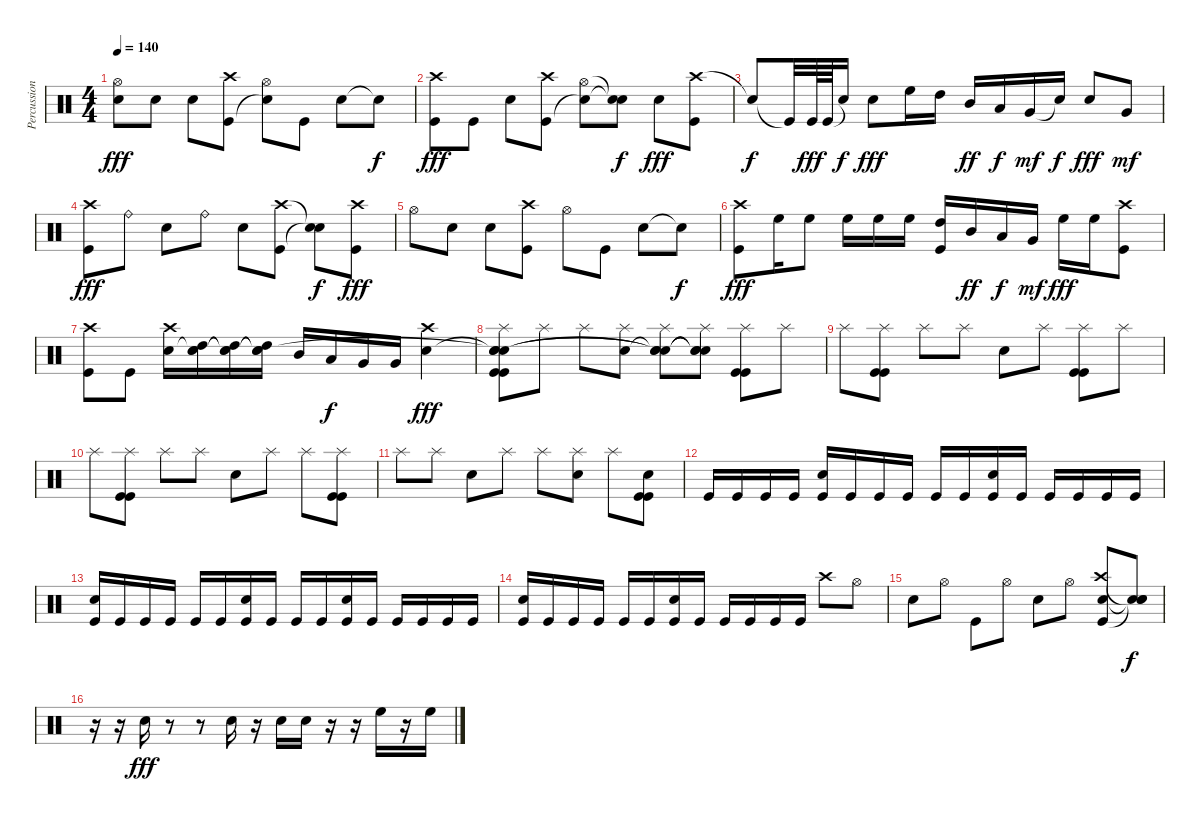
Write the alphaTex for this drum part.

\track ("Percussions" "Percussion") {instrument percussion}
\staff {score}
\articulation defaults
\ts (4 4)
\tempo 140
\clef neutral
\ks c
("Hi-Hat (open)" "Snare (hit)"{t}).8{dy fff} "Electric Snare (hit)".8 "Electric Snare (hit)".8 ("Crash high (hit)" "Kick (hit)").8 ("Hi-Hat (open)" "Snare (hit)"{t}).8 "Kick (hit)".8 "Electric Snare (hit)".8 "Snare (hit)"{t}.8{dy f} |
("Crash high (hit)" "Kick (hit)").8{dy fff} "Kick (hit)".8 "Electric Snare (hit)".8 ("Crash high (hit)" "Kick (hit)").8 ("Hi-Hat (open)" "Snare (hit)"{t}).8 ("Snare (hit)"{t} "Snare (hit)"{t}).8{dy f} "Electric Snare (hit)".8{dy fff} ("Crash high (hit)" "Kick (hit)").8 |
"Snare (hit)"{t}.8{dy f} "Kick (hit)"{t}.32 "Kick (hit)".64{dy fff} "Kick (hit)".64 "Snare (hit)"{t}.16{dy f} "Electric Snare (hit)".8{dy fff} "High Floor Tom (hit)".16{volume 11} "High Tom (hit)".16 "Mid Tom (hit)".16{dy ff} "Low Tom (hit)".16{dy f} "Very Low Tom (hit)".16{dy mf} "Snare (hit)"{t}.16{dy f} "Electric Snare (hit)".8{dy fff volume 16} "Very Low Tom (hit)".8{dy mf volume 11} |
("Crash high (hit)" "Kick (hit)").8{dy fff volume 16} "Ride (bell)".8 "Electric Snare (hit)".8 "Ride (bell)".8 "Electric Snare (hit)".8 ("Crash high (hit)" "Kick (hit)").8 ("Snare (hit)"{t} "Snare (hit)"{t}).8{dy f} ("Crash high (hit)" "Kick (hit)").8{dy fff} |
"Hi-Hat (open)".8 "Electric Snare (hit)".8 "Electric Snare (hit)".8 ("Crash high (hit)" "Kick (hit)").8 "Hi-Hat (open)".8 "Kick (hit)".8 "Electric Snare (hit)".8 "Snare (hit)"{t}.8{dy f} |
("Crash high (hit)" "Kick (hit)").8{dy fff} "High Floor Tom (hit)".16{volume 11} "High Floor Tom (hit)".8 "High Floor Tom (hit)".16 "High Floor Tom (hit)".16 "High Floor Tom (hit)".16 ("High Tom (hit)" "Kick (hit)").16{volume 16} "Mid Tom (hit)".16{dy ff volume 11} "Low Tom (hit)".16{dy f} "Very Low Tom (hit)".16{dy mf} "High Floor Tom (hit)".16{dy fff} "High Floor Tom (hit)".16 ("Crash high (hit)" "Kick (hit)").8{volume 16} |
("Crash high (hit)" "Kick (hit)").8 "Kick (hit)".8 ("Crash high (hit)" "Electric Snare (hit)").16 ("High Tom (hit)" "Snare (hit)"{t} "Snare (hit)").16{volume 11} ("High Tom (hit)" "Snare (hit)"{t} "Snare (hit)"{t}).16 ("High Tom (hit)" "Snare (hit)"{t} "Snare (hit)"{t}).16 "Mid Tom (hit)".16 "Low Tom (hit)".16{dy f} "Very Low Tom (hit)".16 "Very Low Tom (hit)".16 ("Crash high (hit)" "Electric Snare (hit)").4{dy fff volume 16} |
("Splash (hit)" "Snare (hit)"{t} "Snare (hit)"{t} "Snare (hit)" "Kick (hit)" "Kick (hit)").8 "Splash (hit)".8 "Splash (hit)".8 ("Splash (hit)" "Electric Snare (hit)").8 ("Splash (hit)" "Snare (hit)"{t} "Snare (hit)"{t} "Snare (hit)"{t}).8 ("Splash (hit)" "Snare (hit)"{t} "Snare (hit)"{t} "Snare (hit)"{t}).8 ("Splash (hit)" "Kick (hit)" "Kick (hit)").8 "Splash (hit)".8 |
"Splash (hit)".8 ("Splash (hit)" "Kick (hit)" "Kick (hit)").8 "Splash (hit)".8 "Splash (hit)".8 "Electric Snare (hit)".8 "Splash (hit)".8 ("Splash (hit)" "Kick (hit)" "Kick (hit)").8 "Splash (hit)".8 |
"Splash (hit)".8 ("Splash (hit)" "Kick (hit)" "Kick (hit)").8 "Splash (hit)".8 "Splash (hit)".8 "Electric Snare (hit)".8 "Splash (hit)".8 "Splash (hit)".8 ("Splash (hit)" "Kick (hit)" "Kick (hit)").8 |
"Splash (hit)".8 "Splash (hit)".8 "Electric Snare (hit)".8 "Splash (hit)".8 "Splash (hit)".8 ("Splash (hit)" "Electric Snare (hit)").8 "Splash (hit)".8 ("Electric Snare (hit)" "Kick (hit)" "Kick (hit)").8 |
"Kick (hit)".16 "Kick (hit)".16 "Kick (hit)".16 "Kick (hit)".16 ("Electric Snare (hit)" "Kick (hit)").16 "Kick (hit)".16 "Kick (hit)".16 "Kick (hit)".16 "Kick (hit)".16 "Kick (hit)".16 ("Electric Snare (hit)" "Kick (hit)").16 "Kick (hit)".16 "Kick (hit)".16 "Kick (hit)".16 "Kick (hit)".16 "Kick (hit)".16 |
("Electric Snare (hit)" "Kick (hit)").16 "Kick (hit)".16 "Kick (hit)".16 "Kick (hit)".16 "Kick (hit)".16 "Kick (hit)".16 ("Electric Snare (hit)" "Kick (hit)").16 "Kick (hit)".16 "Kick (hit)".16 "Kick (hit)".16 ("Electric Snare (hit)" "Kick (hit)").16 "Kick (hit)".16 "Kick (hit)".16 "Kick (hit)".16 "Kick (hit)".16 "Kick (hit)".16 |
("Electric Snare (hit)" "Kick (hit)").16 "Kick (hit)".16 "Kick (hit)".16 "Kick (hit)".16 "Kick (hit)".16 "Kick (hit)".16 ("Electric Snare (hit)" "Kick (hit)").16 "Kick (hit)".16 "Kick (hit)".16 "Kick (hit)".16 "Kick (hit)".16 "Kick (hit)".16 "Crash high (hit)".8 "Hi-Hat (open)".8 |
"Electric Snare (hit)".8 "Hi-Hat (open)".8 "Kick (hit)".8 "Hi-Hat (open)".8 "Electric Snare (hit)".8 "Hi-Hat (open)".8 ("Crash high (hit)" "Electric Snare (hit)" "Kick (hit)").8 ("Snare (hit)"{t} "Electric Snare (hit)"{t} "Snare (hit)"{t}).8{dy f} |
r.16 r.16 "Electric Snare (hit)".16{dy fff} r.8 r.8 "Electric Snare (hit)".16 r.16 "Electric Snare (hit)".16 "Electric Snare (hit)".16 r.16 r.16 "High Floor Tom (hit)".16{volume 11} r.16 "High Floor Tom (hit)".16
